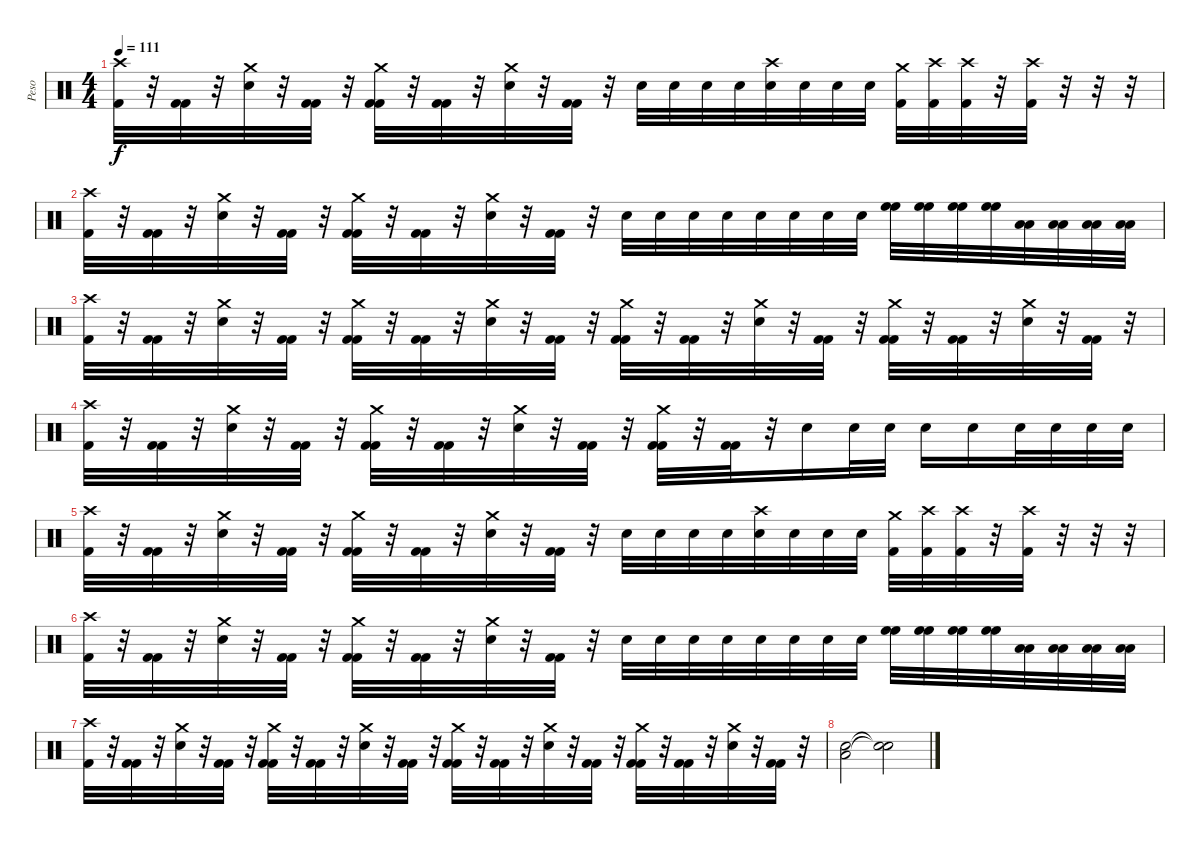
\track ("Peso" "Peso") {instrument percussion}
\staff {score}
\articulation defaults
\ts (4 4)
\tempo 111
\clef neutral
\ks c
("Crash high (hit)" "Kick (hit) 2").32{dy f} r.32 ("Kick (hit) 2" "Kick (hit) 2").32 r.32 ("Crash medium (hit)" "Snare (hit) 2").32 r.32 ("Kick (hit) 2" "Kick (hit) 2").32 r.32 ("Crash medium (hit)" "Kick (hit) 2" "Kick (hit) 2").32 r.32 ("Kick (hit) 2" "Kick (hit) 2").32 r.32 ("Crash medium (hit)" "Snare (hit) 2").32 r.32 ("Kick (hit) 2" "Kick (hit) 2").32 r.32 "Snare (hit) 2".32 "Snare (hit) 2".32 "Snare (hit) 2".32 "Snare (hit) 2".32 ("Crash high (hit)" "Snare (hit) 2").32 "Snare (hit) 2".32 "Snare (hit) 2".32 "Snare (hit) 2".32 ("Crash medium (hit)" "Kick (hit) 2").32 ("Crash high (hit)" "Kick (hit) 2").32 ("Crash high (hit)" "Kick (hit) 2").32 r.32 ("Crash high (hit)" "Kick (hit) 2").32 r.32 r.32 r.32 |
("Crash high (hit)" "Kick (hit) 2").32 r.32 ("Kick (hit) 2" "Kick (hit) 2").32 r.32 ("Crash medium (hit)" "Snare (hit) 2").32 r.32 ("Kick (hit) 2" "Kick (hit) 2").32 r.32 ("Crash medium (hit)" "Kick (hit) 2" "Kick (hit) 2").32 r.32 ("Kick (hit) 2" "Kick (hit) 2").32 r.32 ("Crash medium (hit)" "Snare (hit) 2").32 r.32 ("Kick (hit) 2" "Kick (hit) 2").32 r.32 "Snare (hit) 2".32 "Snare (hit) 2".32 "Snare (hit) 2".32 "Snare (hit) 2".32 "Snare (hit) 2".32 "Snare (hit) 2".32 "Snare (hit) 2".32 "Snare (hit) 2".32 ("High Floor Tom (hit)" "High Floor Tom (hit)").32{volume 16} ("High Floor Tom (hit)" "High Floor Tom (hit)").32 ("High Floor Tom (hit)" "High Floor Tom (hit)").32 ("High Floor Tom (hit)" "High Floor Tom (hit)").32 ("Low Floor Tom (hit)" "Low Floor Tom (hit)").32{volume 16} ("Low Floor Tom (hit)" "Low Floor Tom (hit)").32 ("Low Floor Tom (hit)" "Low Floor Tom (hit)").32 ("Low Floor Tom (hit)" "Low Floor Tom (hit)").32 |
("Crash high (hit)" "Kick (hit) 2").32{volume 15} r.32 ("Kick (hit) 2" "Kick (hit) 2").32 r.32 ("Crash medium (hit)" "Snare (hit) 2").32 r.32 ("Kick (hit) 2" "Kick (hit) 2").32 r.32 ("Crash medium (hit)" "Kick (hit) 2" "Kick (hit) 2").32 r.32 ("Kick (hit) 2" "Kick (hit) 2").32 r.32 ("Crash medium (hit)" "Snare (hit) 2").32 r.32 ("Kick (hit) 2" "Kick (hit) 2").32 r.32 ("Crash medium (hit)" "Kick (hit) 2" "Kick (hit) 2").32 r.32 ("Kick (hit) 2" "Kick (hit) 2").32 r.32 ("Crash medium (hit)" "Snare (hit) 2").32 r.32 ("Kick (hit) 2" "Kick (hit) 2").32 r.32 ("Crash medium (hit)" "Kick (hit) 2" "Kick (hit) 2").32 r.32 ("Kick (hit) 2" "Kick (hit) 2").32 r.32 ("Crash medium (hit)" "Snare (hit) 2").32 r.32 ("Kick (hit) 2" "Kick (hit) 2").32 r.32 |
("Crash high (hit)" "Kick (hit) 2").32 r.32 ("Kick (hit) 2" "Kick (hit) 2").32 r.32 ("Crash medium (hit)" "Snare (hit) 2").32 r.32 ("Kick (hit) 2" "Kick (hit) 2").32 r.32 ("Crash medium (hit)" "Kick (hit) 2" "Kick (hit) 2").32 r.32 ("Kick (hit) 2" "Kick (hit) 2").32 r.32 ("Crash medium (hit)" "Snare (hit) 2").32 r.32 ("Kick (hit) 2" "Kick (hit) 2").32 r.32 ("Crash medium (hit)" "Kick (hit) 2" "Kick (hit) 2").32 r.32 ("Kick (hit) 2" "Kick (hit) 2").32 r.32 "Snare (hit) 2".16 "Snare (hit) 2".32 "Snare (hit) 2".32 "Snare (hit) 2".16 "Snare (hit) 2".16 "Snare (hit) 2".32 "Snare (hit) 2".32 "Snare (hit) 2".32 "Snare (hit) 2".32 |
("Crash high (hit)" "Kick (hit) 2").32 r.32 ("Kick (hit) 2" "Kick (hit) 2").32 r.32 ("Crash medium (hit)" "Snare (hit) 2").32 r.32 ("Kick (hit) 2" "Kick (hit) 2").32 r.32 ("Crash medium (hit)" "Kick (hit) 2" "Kick (hit) 2").32 r.32 ("Kick (hit) 2" "Kick (hit) 2").32 r.32 ("Crash medium (hit)" "Snare (hit) 2").32 r.32 ("Kick (hit) 2" "Kick (hit) 2").32 r.32 "Snare (hit) 2".32 "Snare (hit) 2".32 "Snare (hit) 2".32 "Snare (hit) 2".32 ("Crash high (hit)" "Snare (hit) 2").32 "Snare (hit) 2".32 "Snare (hit) 2".32 "Snare (hit) 2".32 ("Crash medium (hit)" "Kick (hit) 2").32 ("Crash high (hit)" "Kick (hit) 2").32 ("Crash high (hit)" "Kick (hit) 2").32 r.32 ("Crash high (hit)" "Kick (hit) 2").32 r.32 r.32 r.32 |
("Crash high (hit)" "Kick (hit) 2").32 r.32 ("Kick (hit) 2" "Kick (hit) 2").32 r.32 ("Crash medium (hit)" "Snare (hit) 2").32 r.32 ("Kick (hit) 2" "Kick (hit) 2").32 r.32 ("Crash medium (hit)" "Kick (hit) 2" "Kick (hit) 2").32 r.32 ("Kick (hit) 2" "Kick (hit) 2").32 r.32 ("Crash medium (hit)" "Snare (hit) 2").32 r.32 ("Kick (hit) 2" "Kick (hit) 2").32 r.32 "Snare (hit) 2".32 "Snare (hit) 2".32 "Snare (hit) 2".32 "Snare (hit) 2".32 "Snare (hit) 2".32 "Snare (hit) 2".32 "Snare (hit) 2".32 "Snare (hit) 2".32 ("High Floor Tom (hit)" "High Floor Tom (hit)").32{volume 16} ("High Floor Tom (hit)" "High Floor Tom (hit)").32 ("High Floor Tom (hit)" "High Floor Tom (hit)").32 ("High Floor Tom (hit)" "High Floor Tom (hit)").32 ("Low Floor Tom (hit)" "Low Floor Tom (hit)").32{volume 16} ("Low Floor Tom (hit)" "Low Floor Tom (hit)").32 ("Low Floor Tom (hit)" "Low Floor Tom (hit)").32 ("Low Floor Tom (hit)" "Low Floor Tom (hit)").32 |
("Crash high (hit)" "Kick (hit) 2").32{volume 15} r.32 ("Kick (hit) 2" "Kick (hit) 2").32 r.32 ("Crash medium (hit)" "Snare (hit) 2").32 r.32 ("Kick (hit) 2" "Kick (hit) 2").32 r.32 ("Crash medium (hit)" "Kick (hit) 2" "Kick (hit) 2").32 r.32 ("Kick (hit) 2" "Kick (hit) 2").32 r.32 ("Crash medium (hit)" "Snare (hit) 2").32 r.32 ("Kick (hit) 2" "Kick (hit) 2").32 r.32 ("Crash medium (hit)" "Kick (hit) 2" "Kick (hit) 2").32 r.32 ("Kick (hit) 2" "Kick (hit) 2").32 r.32 ("Crash medium (hit)" "Snare (hit) 2").32 r.32 ("Kick (hit) 2" "Kick (hit) 2").32 r.32 ("Crash medium (hit)" "Kick (hit) 2" "Kick (hit) 2").32 r.32 ("Kick (hit) 2" "Kick (hit) 2").32 r.32 ("Crash medium (hit)" "Snare (hit) 2").32 r.32 ("Kick (hit) 2" "Kick (hit) 2").32 r.32 |
("Low Floor Tom (hit)" "Snare (hit) 2").2 ("Snare (hit)"{t} "Snare (hit)"{t}).2
